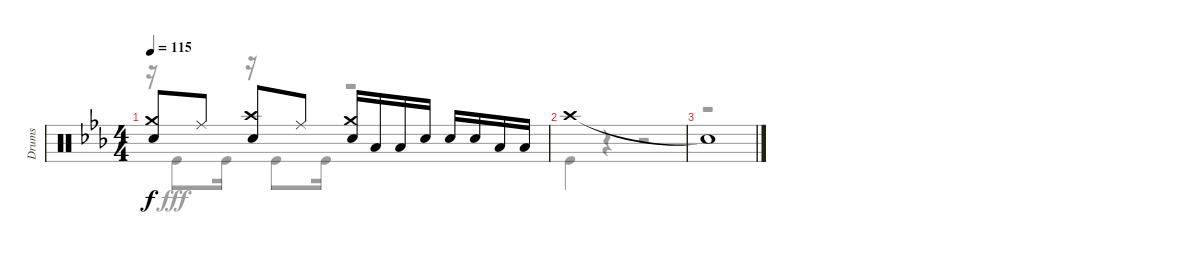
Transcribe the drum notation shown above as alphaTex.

\track ("Drums" "Drums") {instrument percussion}
\staff {score}
\articulation defaults
\voice
\ts (4 4)
\tempo 115
\clef neutral
\ks eb
("Crash medium (hit)" "Snare (hit) 2").8{dy f} "Ride (middle)".8 ("Crash high (hit)" "Snare (hit) 2").8 "Ride (middle)".8 ("Crash medium (hit)" "Snare (hit) 2").16 "Low Tom (hit)".16 "Low Tom (hit)".16 "Snare (hit) 2".16 "Snare (hit) 2".16 "Snare (hit) 2".16 "Low Tom (hit)".16 "Low Tom (hit)".16 |
"Crash high (hit)".1 |
"Snare (hit)"{t}.1
\voice
\clef neutral
\ottava regular
\simile none
\ks eb
r.16{dy fff} "Kick (hit)".8 "Kick (hit)".16 r.16 "Kick (hit)".8 "Kick (hit)".16 r.2 |
"Kick (hit)".4 r.4 r.2 |
r.1
